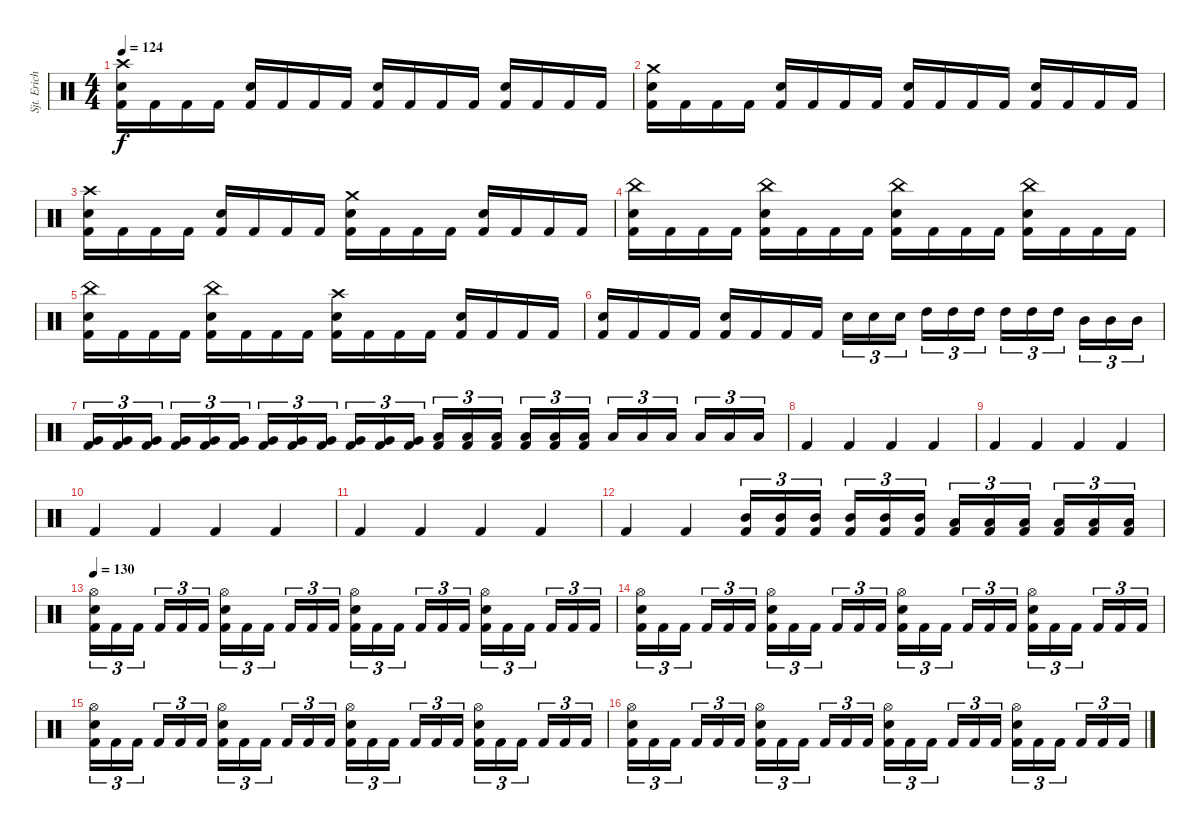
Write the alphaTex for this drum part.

\track ("Sjt. Erichsen" "Sjt. Erich") {instrument percussion}
\staff {score}
\articulation defaults
\ts (4 4)
\tempo 124
\clef neutral
\ks c
("Crash high (hit)" "Electric Snare (hit)" "Kick (hit) 2").16{dy f} "Kick (hit) 2".16 "Kick (hit) 2".16 "Kick (hit) 2".16 ("Electric Snare (hit)" "Kick (hit) 2").16 "Kick (hit) 2".16 "Kick (hit) 2".16 "Kick (hit) 2".16 ("Electric Snare (hit)" "Kick (hit) 2").16 "Kick (hit) 2".16 "Kick (hit) 2".16 "Kick (hit) 2".16 ("Electric Snare (hit)" "Kick (hit) 2").16 "Kick (hit) 2".16 "Kick (hit) 2".16 "Kick (hit) 2".16 |
("Crash medium (hit)" "Electric Snare (hit)" "Kick (hit) 2").16 "Kick (hit) 2".16 "Kick (hit) 2".16 "Kick (hit) 2".16 ("Electric Snare (hit)" "Kick (hit) 2").16 "Kick (hit) 2".16 "Kick (hit) 2".16 "Kick (hit) 2".16 ("Electric Snare (hit)" "Kick (hit) 2").16 "Kick (hit) 2".16 "Kick (hit) 2".16 "Kick (hit) 2".16 ("Electric Snare (hit)" "Kick (hit) 2").16 "Kick (hit) 2".16 "Kick (hit) 2".16 "Kick (hit) 2".16 |
("Crash high (hit)" "Electric Snare (hit)" "Kick (hit) 2").16 "Kick (hit) 2".16 "Kick (hit) 2".16 "Kick (hit) 2".16 ("Electric Snare (hit)" "Kick (hit) 2").16 "Kick (hit) 2".16 "Kick (hit) 2".16 "Kick (hit) 2".16 ("Crash medium (hit)" "Electric Snare (hit)" "Kick (hit) 2").16 "Kick (hit) 2".16 "Kick (hit) 2".16 "Kick (hit) 2".16 ("Electric Snare (hit)" "Kick (hit) 2").16 "Kick (hit) 2".16 "Kick (hit) 2".16 "Kick (hit) 2".16 |
("China (hit)" "Electric Snare (hit)" "Kick (hit) 2").16 "Kick (hit) 2".16 "Kick (hit) 2".16 "Kick (hit) 2".16 ("China (hit)" "Electric Snare (hit)" "Kick (hit) 2").16 "Kick (hit) 2".16 "Kick (hit) 2".16 "Kick (hit) 2".16 ("China (hit)" "Electric Snare (hit)" "Kick (hit) 2").16 "Kick (hit) 2".16 "Kick (hit) 2".16 "Kick (hit) 2".16 ("China (hit)" "Electric Snare (hit)" "Kick (hit) 2").16 "Kick (hit) 2".16 "Kick (hit) 2".16 "Kick (hit) 2".16 |
("China (hit)" "Electric Snare (hit)" "Kick (hit) 2").16 "Kick (hit) 2".16 "Kick (hit) 2".16 "Kick (hit) 2".16 ("China (hit)" "Electric Snare (hit)" "Kick (hit) 2").16 "Kick (hit) 2".16 "Kick (hit) 2".16 "Kick (hit) 2".16 ("Crash high (hit)" "Electric Snare (hit)" "Kick (hit) 2").16 "Kick (hit) 2".16 "Kick (hit) 2".16 "Kick (hit) 2".16 ("Electric Snare (hit)" "Kick (hit) 2").16 "Kick (hit) 2".16 "Kick (hit) 2".16 "Kick (hit) 2".16 |
("Electric Snare (hit)" "Kick (hit) 2").16 "Kick (hit) 2".16 "Kick (hit) 2".16 "Kick (hit) 2".16 ("Electric Snare (hit)" "Kick (hit) 2").16 "Kick (hit) 2".16 "Kick (hit) 2".16 "Kick (hit) 2".16 "Electric Snare (hit)".16{tu (3 2)} "Electric Snare (hit)".16{tu (3 2)} "Electric Snare (hit)".16{tu (3 2) beam splitsecondary} "High Tom (hit)".16{tu (3 2)} "High Tom (hit)".16{tu (3 2)} "High Tom (hit)".16{tu (3 2)} "High Tom (hit)".16{tu (3 2)} "High Tom (hit)".16{tu (3 2)} "High Tom (hit)".16{tu (3 2) beam splitsecondary} "Mid Tom (hit)".16{tu (3 2)} "Mid Tom (hit)".16{tu (3 2)} "Mid Tom (hit)".16{tu (3 2)} |
("Very Low Tom (hit)" "Kick (hit) 2").16{tu (3 2)} ("Very Low Tom (hit)" "Kick (hit) 2").16{tu (3 2)} ("Very Low Tom (hit)" "Kick (hit) 2").16{tu (3 2) beam splitsecondary} ("Very Low Tom (hit)" "Kick (hit) 2").16{tu (3 2)} ("Very Low Tom (hit)" "Kick (hit) 2").16{tu (3 2)} ("Very Low Tom (hit)" "Kick (hit) 2").16{tu (3 2)} ("Very Low Tom (hit)" "Kick (hit) 2").16{tu (3 2)} ("Very Low Tom (hit)" "Kick (hit) 2").16{tu (3 2)} ("Very Low Tom (hit)" "Kick (hit) 2").16{tu (3 2) beam splitsecondary} ("Very Low Tom (hit)" "Kick (hit) 2").16{tu (3 2)} ("Very Low Tom (hit)" "Kick (hit) 2").16{tu (3 2)} ("Very Low Tom (hit)" "Kick (hit) 2").16{tu (3 2)} ("Low Floor Tom (hit)" "Kick (hit) 2").16{tu (3 2)} ("Low Floor Tom (hit)" "Kick (hit) 2").16{tu (3 2)} ("Low Floor Tom (hit)" "Kick (hit) 2").16{tu (3 2) beam splitsecondary} ("Low Floor Tom (hit)" "Kick (hit) 2").16{tu (3 2)} ("Low Floor Tom (hit)" "Kick (hit) 2").16{tu (3 2)} ("Low Floor Tom (hit)" "Kick (hit) 2").16{tu (3 2)} "Low Tom (hit)".16{tu (3 2)} "Low Tom (hit)".16{tu (3 2)} "Low Tom (hit)".16{tu (3 2) beam splitsecondary} "Low Tom (hit)".16{tu (3 2)} "Low Tom (hit)".16{tu (3 2)} "Low Tom (hit)".16{tu (3 2)} |
"Kick (hit) 2".4 "Kick (hit) 2".4 "Kick (hit) 2".4 "Kick (hit) 2".4 |
"Kick (hit) 2".4 "Kick (hit) 2".4 "Kick (hit) 2".4 "Kick (hit) 2".4 |
"Kick (hit) 2".4 "Kick (hit) 2".4 "Kick (hit) 2".4 "Kick (hit) 2".4 |
"Kick (hit) 2".4 "Kick (hit) 2".4 "Kick (hit) 2".4 "Kick (hit) 2".4 |
"Kick (hit) 2".4 "Kick (hit) 2".4 ("Mid Tom (hit)" "Kick (hit) 2").16{tu (3 2)} ("Mid Tom (hit)" "Kick (hit) 2").16{tu (3 2)} ("Mid Tom (hit)" "Kick (hit) 2").16{tu (3 2) beam splitsecondary} ("Mid Tom (hit)" "Kick (hit) 2").16{tu (3 2)} ("Mid Tom (hit)" "Kick (hit) 2").16{tu (3 2)} ("Mid Tom (hit)" "Kick (hit) 2").16{tu (3 2)} ("Low Tom (hit)" "Kick (hit) 2").16{tu (3 2)} ("Low Tom (hit)" "Kick (hit) 2").16{tu (3 2)} ("Low Tom (hit)" "Kick (hit) 2").16{tu (3 2) beam splitsecondary} ("Low Tom (hit)" "Kick (hit) 2").16{tu (3 2)} ("Low Tom (hit)" "Kick (hit) 2").16{tu (3 2)} ("Low Tom (hit)" "Kick (hit) 2").16{tu (3 2)} |
\tempo 130
("Hi-Hat (open)" "Electric Snare (hit)" "Kick (hit) 2").16{tu (3 2)} "Kick (hit) 2".16{tu (3 2)} "Kick (hit) 2".16{tu (3 2) beam splitsecondary} "Kick (hit) 2".16{tu (3 2)} "Kick (hit) 2".16{tu (3 2)} "Kick (hit) 2".16{tu (3 2)} ("Hi-Hat (open)" "Electric Snare (hit)" "Kick (hit) 2").16{tu (3 2)} "Kick (hit) 2".16{tu (3 2)} "Kick (hit) 2".16{tu (3 2) beam splitsecondary} "Kick (hit) 2".16{tu (3 2)} "Kick (hit) 2".16{tu (3 2)} "Kick (hit) 2".16{tu (3 2)} ("Hi-Hat (open)" "Electric Snare (hit)" "Kick (hit) 2").16{tu (3 2)} "Kick (hit) 2".16{tu (3 2)} "Kick (hit) 2".16{tu (3 2) beam splitsecondary} "Kick (hit) 2".16{tu (3 2)} "Kick (hit) 2".16{tu (3 2)} "Kick (hit) 2".16{tu (3 2)} ("Hi-Hat (open)" "Electric Snare (hit)" "Kick (hit) 2").16{tu (3 2)} "Kick (hit) 2".16{tu (3 2)} "Kick (hit) 2".16{tu (3 2) beam splitsecondary} "Kick (hit) 2".16{tu (3 2)} "Kick (hit) 2".16{tu (3 2)} "Kick (hit) 2".16{tu (3 2)} |
("Hi-Hat (open)" "Electric Snare (hit)" "Kick (hit) 2").16{tu (3 2)} "Kick (hit) 2".16{tu (3 2)} "Kick (hit) 2".16{tu (3 2) beam splitsecondary} "Kick (hit) 2".16{tu (3 2)} "Kick (hit) 2".16{tu (3 2)} "Kick (hit) 2".16{tu (3 2)} ("Hi-Hat (open)" "Electric Snare (hit)" "Kick (hit) 2").16{tu (3 2)} "Kick (hit) 2".16{tu (3 2)} "Kick (hit) 2".16{tu (3 2) beam splitsecondary} "Kick (hit) 2".16{tu (3 2)} "Kick (hit) 2".16{tu (3 2)} "Kick (hit) 2".16{tu (3 2)} ("Hi-Hat (open)" "Electric Snare (hit)" "Kick (hit) 2").16{tu (3 2)} "Kick (hit) 2".16{tu (3 2)} "Kick (hit) 2".16{tu (3 2) beam splitsecondary} "Kick (hit) 2".16{tu (3 2)} "Kick (hit) 2".16{tu (3 2)} "Kick (hit) 2".16{tu (3 2)} ("Hi-Hat (open)" "Electric Snare (hit)" "Kick (hit) 2").16{tu (3 2)} "Kick (hit) 2".16{tu (3 2)} "Kick (hit) 2".16{tu (3 2) beam splitsecondary} "Kick (hit) 2".16{tu (3 2)} "Kick (hit) 2".16{tu (3 2)} "Kick (hit) 2".16{tu (3 2)} |
("Hi-Hat (open)" "Electric Snare (hit)" "Kick (hit) 2").16{tu (3 2)} "Kick (hit) 2".16{tu (3 2)} "Kick (hit) 2".16{tu (3 2) beam splitsecondary} "Kick (hit) 2".16{tu (3 2)} "Kick (hit) 2".16{tu (3 2)} "Kick (hit) 2".16{tu (3 2)} ("Hi-Hat (open)" "Electric Snare (hit)" "Kick (hit) 2").16{tu (3 2)} "Kick (hit) 2".16{tu (3 2)} "Kick (hit) 2".16{tu (3 2) beam splitsecondary} "Kick (hit) 2".16{tu (3 2)} "Kick (hit) 2".16{tu (3 2)} "Kick (hit) 2".16{tu (3 2)} ("Hi-Hat (open)" "Electric Snare (hit)" "Kick (hit) 2").16{tu (3 2)} "Kick (hit) 2".16{tu (3 2)} "Kick (hit) 2".16{tu (3 2) beam splitsecondary} "Kick (hit) 2".16{tu (3 2)} "Kick (hit) 2".16{tu (3 2)} "Kick (hit) 2".16{tu (3 2)} ("Hi-Hat (open)" "Electric Snare (hit)" "Kick (hit) 2").16{tu (3 2)} "Kick (hit) 2".16{tu (3 2)} "Kick (hit) 2".16{tu (3 2) beam splitsecondary} "Kick (hit) 2".16{tu (3 2)} "Kick (hit) 2".16{tu (3 2)} "Kick (hit) 2".16{tu (3 2)} |
("Hi-Hat (open)" "Electric Snare (hit)" "Kick (hit) 2").16{tu (3 2)} "Kick (hit) 2".16{tu (3 2)} "Kick (hit) 2".16{tu (3 2) beam splitsecondary} "Kick (hit) 2".16{tu (3 2)} "Kick (hit) 2".16{tu (3 2)} "Kick (hit) 2".16{tu (3 2)} ("Hi-Hat (open)" "Electric Snare (hit)" "Kick (hit) 2").16{tu (3 2)} "Kick (hit) 2".16{tu (3 2)} "Kick (hit) 2".16{tu (3 2) beam splitsecondary} "Kick (hit) 2".16{tu (3 2)} "Kick (hit) 2".16{tu (3 2)} "Kick (hit) 2".16{tu (3 2)} ("Hi-Hat (open)" "Electric Snare (hit)" "Kick (hit) 2").16{tu (3 2)} "Kick (hit) 2".16{tu (3 2)} "Kick (hit) 2".16{tu (3 2) beam splitsecondary} "Kick (hit) 2".16{tu (3 2)} "Kick (hit) 2".16{tu (3 2)} "Kick (hit) 2".16{tu (3 2)} ("Hi-Hat (open)" "Electric Snare (hit)" "Kick (hit) 2").16{tu (3 2)} "Kick (hit) 2".16{tu (3 2)} "Kick (hit) 2".16{tu (3 2) beam splitsecondary} "Kick (hit) 2".16{tu (3 2)} "Kick (hit) 2".16{tu (3 2)} "Kick (hit) 2".16{tu (3 2)}
